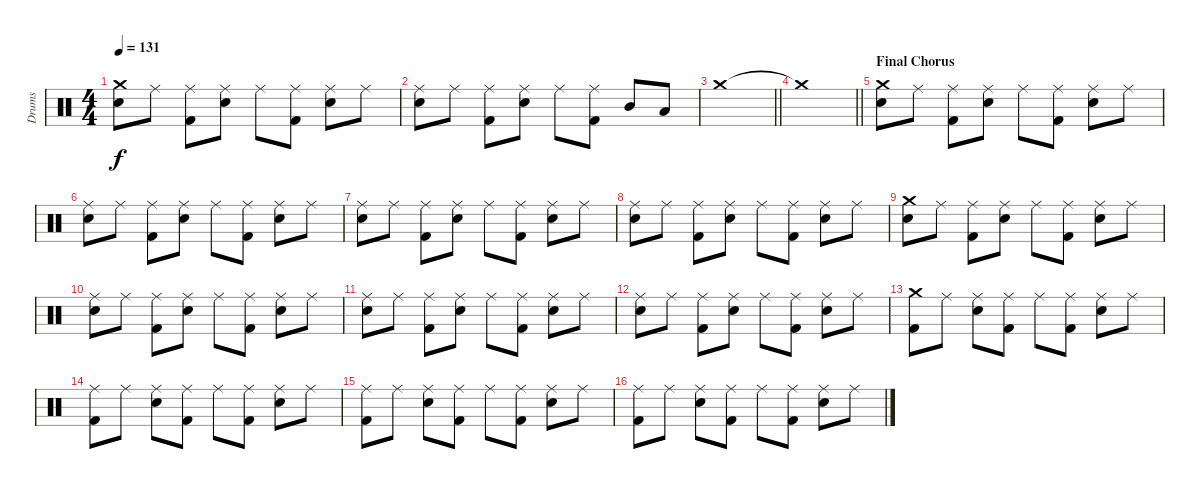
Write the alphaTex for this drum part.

\track ("Drums" "Drums") {instrument percussion}
\staff {score}
\articulation defaults
\ts (4 4)
\tempo 131
\clef neutral
\ks c
("Crash medium (hit)" "Electric Snare (hit)").8{dy f} "Ride (middle)".8 ("Ride (middle)" "Kick (hit) 2").8 ("Ride (middle)" "Electric Snare (hit)").8 "Ride (middle)".8 ("Ride (middle)" "Kick (hit) 2").8 ("Ride (middle)" "Electric Snare (hit)").8 "Ride (middle)".8 |
("Ride (middle)" "Electric Snare (hit)").8 "Ride (middle)".8 ("Ride (middle)" "Kick (hit) 2").8 ("Ride (middle)" "Electric Snare (hit)").8 "Ride (middle)".8 ("Ride (middle)" "Kick (hit) 2").8 "Mid Tom (hit)".8 "Low Tom (hit)".8 |
\barLineRight lightlight "Crash medium (hit)".1
|
\barLineRight lightlight "Crash medium (hit)"{t}.1
|
\section ("" "Final Chorus")
("Crash medium (hit)" "Electric Snare (hit)").8{volume 13} "Ride (middle)".8 ("Ride (middle)" "Kick (hit) 2").8 ("Ride (middle)" "Electric Snare (hit)").8 "Ride (middle)".8 ("Ride (middle)" "Kick (hit) 2").8 ("Ride (middle)" "Electric Snare (hit)").8 "Ride (middle)".8 |
("Ride (middle)" "Electric Snare (hit)").8 "Ride (middle)".8 ("Ride (middle)" "Kick (hit) 2").8 ("Ride (middle)" "Electric Snare (hit)").8 "Ride (middle)".8 ("Ride (middle)" "Kick (hit) 2").8 ("Ride (middle)" "Electric Snare (hit)").8 "Ride (middle)".8 |
("Ride (middle)" "Electric Snare (hit)").8 "Ride (middle)".8 ("Ride (middle)" "Kick (hit) 2").8 ("Ride (middle)" "Electric Snare (hit)").8 "Ride (middle)".8 ("Ride (middle)" "Kick (hit) 2").8 ("Ride (middle)" "Electric Snare (hit)").8 "Ride (middle)".8 |
("Ride (middle)" "Electric Snare (hit)").8 "Ride (middle)".8 ("Ride (middle)" "Kick (hit) 2").8 ("Ride (middle)" "Electric Snare (hit)").8 "Ride (middle)".8 ("Ride (middle)" "Kick (hit) 2").8 ("Ride (middle)" "Electric Snare (hit)").8 "Ride (middle)".8 |
("Crash medium (hit)" "Electric Snare (hit)").8 "Ride (middle)".8 ("Ride (middle)" "Kick (hit) 2").8 ("Ride (middle)" "Electric Snare (hit)").8 "Ride (middle)".8 ("Ride (middle)" "Kick (hit) 2").8 ("Ride (middle)" "Electric Snare (hit)").8 "Ride (middle)".8 |
("Ride (middle)" "Electric Snare (hit)").8 "Ride (middle)".8 ("Ride (middle)" "Kick (hit) 2").8 ("Ride (middle)" "Electric Snare (hit)").8 "Ride (middle)".8 ("Ride (middle)" "Kick (hit) 2").8 ("Ride (middle)" "Electric Snare (hit)").8 "Ride (middle)".8 |
("Ride (middle)" "Electric Snare (hit)").8 "Ride (middle)".8 ("Ride (middle)" "Kick (hit) 2").8 ("Ride (middle)" "Electric Snare (hit)").8 "Ride (middle)".8 ("Ride (middle)" "Kick (hit) 2").8 ("Ride (middle)" "Electric Snare (hit)").8 "Ride (middle)".8 |
("Ride (middle)" "Electric Snare (hit)").8 "Ride (middle)".8 ("Ride (middle)" "Kick (hit) 2").8 ("Ride (middle)" "Electric Snare (hit)").8 "Ride (middle)".8 ("Ride (middle)" "Kick (hit) 2").8 ("Ride (middle)" "Electric Snare (hit)").8 "Ride (middle)".8 |
("Crash medium (hit)" "Kick (hit) 2").8 "Ride (middle)".8 ("Ride (middle)" "Electric Snare (hit)").8 ("Ride (middle)" "Kick (hit) 2").8 "Ride (middle)".8 ("Ride (middle)" "Kick (hit) 2").8 ("Ride (middle)" "Electric Snare (hit)").8 "Ride (middle)".8 |
("Ride (middle)" "Kick (hit) 2").8 "Ride (middle)".8 ("Ride (middle)" "Electric Snare (hit)").8 ("Ride (middle)" "Kick (hit) 2").8 "Ride (middle)".8 ("Ride (middle)" "Kick (hit) 2").8 ("Ride (middle)" "Electric Snare (hit)").8 "Ride (middle)".8 |
("Ride (middle)" "Kick (hit) 2").8 "Ride (middle)".8 ("Ride (middle)" "Electric Snare (hit)").8 ("Ride (middle)" "Kick (hit) 2").8 "Ride (middle)".8 ("Ride (middle)" "Kick (hit) 2").8 ("Ride (middle)" "Electric Snare (hit)").8 "Ride (middle)".8 |
("Ride (middle)" "Kick (hit) 2").8 "Ride (middle)".8 ("Ride (middle)" "Electric Snare (hit)").8 ("Ride (middle)" "Kick (hit) 2").8 "Ride (middle)".8 ("Ride (middle)" "Kick (hit) 2").8 ("Ride (middle)" "Electric Snare (hit)").8 "Ride (middle)".8
